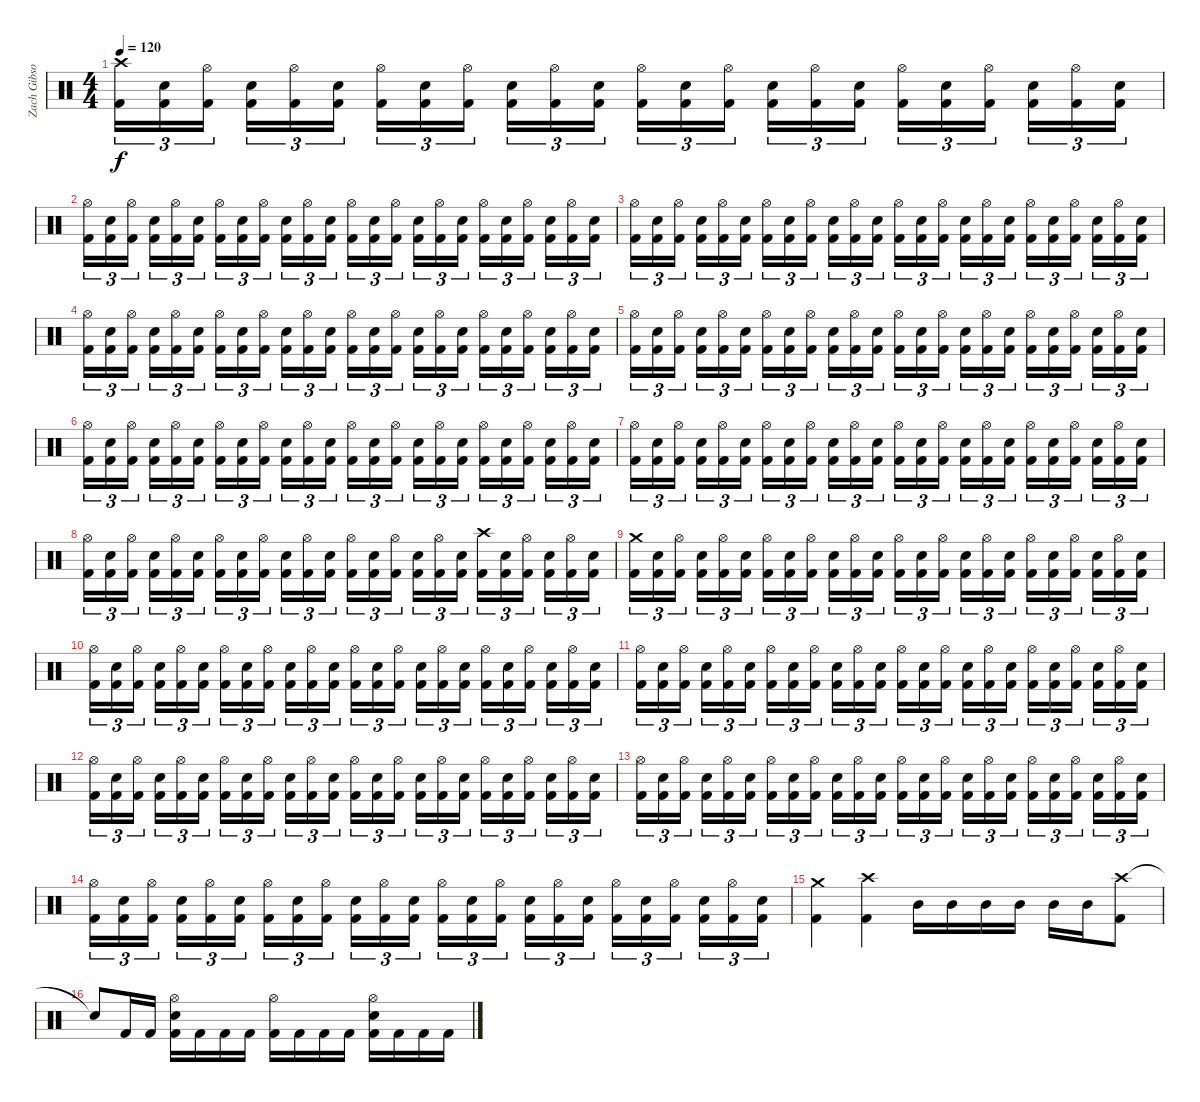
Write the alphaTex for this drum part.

\track ("Zach Gibson (Drums)" "Zach Gibso") {instrument percussion}
\staff {score}
\articulation defaults
\ts (4 4)
\tempo 120
\tempo 181
\tempo 120
\clef neutral
\ks c
("Crash high (hit)" "Kick (hit) 2").16{tu (3 2) dy f} ("Snare (hit) 2" "Kick (hit) 2").16{tu (3 2)} ("Hi-Hat (open)" "Kick (hit) 2").16{tu (3 2)} ("Snare (hit) 2" "Kick (hit) 2").16{tu (3 2)} ("Hi-Hat (open)" "Kick (hit) 2").16{tu (3 2)} ("Snare (hit) 2" "Kick (hit) 2").16{tu (3 2)} ("Hi-Hat (open)" "Kick (hit) 2").16{tu (3 2)} ("Snare (hit) 2" "Kick (hit) 2").16{tu (3 2)} ("Hi-Hat (open)" "Kick (hit) 2").16{tu (3 2)} ("Snare (hit) 2" "Kick (hit) 2").16{tu (3 2)} ("Hi-Hat (open)" "Kick (hit) 2").16{tu (3 2)} ("Snare (hit) 2" "Kick (hit) 2").16{tu (3 2)} ("Hi-Hat (open)" "Kick (hit) 2").16{tu (3 2)} ("Snare (hit) 2" "Kick (hit) 2").16{tu (3 2)} ("Hi-Hat (open)" "Kick (hit) 2").16{tu (3 2)} ("Snare (hit) 2" "Kick (hit) 2").16{tu (3 2)} ("Hi-Hat (open)" "Kick (hit) 2").16{tu (3 2)} ("Snare (hit) 2" "Kick (hit) 2").16{tu (3 2)} ("Hi-Hat (open)" "Kick (hit) 2").16{tu (3 2)} ("Snare (hit) 2" "Kick (hit) 2").16{tu (3 2)} ("Hi-Hat (open)" "Kick (hit) 2").16{tu (3 2)} ("Snare (hit) 2" "Kick (hit) 2").16{tu (3 2)} ("Hi-Hat (open)" "Kick (hit) 2").16{tu (3 2)} ("Snare (hit) 2" "Kick (hit) 2").16{tu (3 2)} |
("Hi-Hat (open)" "Kick (hit) 2").16{tu (3 2)} ("Snare (hit) 2" "Kick (hit) 2").16{tu (3 2)} ("Hi-Hat (open)" "Kick (hit) 2").16{tu (3 2)} ("Snare (hit) 2" "Kick (hit) 2").16{tu (3 2)} ("Hi-Hat (open)" "Kick (hit) 2").16{tu (3 2)} ("Snare (hit) 2" "Kick (hit) 2").16{tu (3 2)} ("Hi-Hat (open)" "Kick (hit) 2").16{tu (3 2)} ("Snare (hit) 2" "Kick (hit) 2").16{tu (3 2)} ("Hi-Hat (open)" "Kick (hit) 2").16{tu (3 2)} ("Snare (hit) 2" "Kick (hit) 2").16{tu (3 2)} ("Hi-Hat (open)" "Kick (hit) 2").16{tu (3 2)} ("Snare (hit) 2" "Kick (hit) 2").16{tu (3 2)} ("Hi-Hat (open)" "Kick (hit) 2").16{tu (3 2)} ("Snare (hit) 2" "Kick (hit) 2").16{tu (3 2)} ("Hi-Hat (open)" "Kick (hit) 2").16{tu (3 2)} ("Snare (hit) 2" "Kick (hit) 2").16{tu (3 2)} ("Hi-Hat (open)" "Kick (hit) 2").16{tu (3 2)} ("Snare (hit) 2" "Kick (hit) 2").16{tu (3 2)} ("Hi-Hat (open)" "Kick (hit) 2").16{tu (3 2)} ("Snare (hit) 2" "Kick (hit) 2").16{tu (3 2)} ("Hi-Hat (open)" "Kick (hit) 2").16{tu (3 2)} ("Snare (hit) 2" "Kick (hit) 2").16{tu (3 2)} ("Hi-Hat (open)" "Kick (hit) 2").16{tu (3 2)} ("Snare (hit) 2" "Kick (hit) 2").16{tu (3 2)} |
("Hi-Hat (open)" "Kick (hit) 2").16{tu (3 2)} ("Snare (hit) 2" "Kick (hit) 2").16{tu (3 2)} ("Hi-Hat (open)" "Kick (hit) 2").16{tu (3 2)} ("Snare (hit) 2" "Kick (hit) 2").16{tu (3 2)} ("Hi-Hat (open)" "Kick (hit) 2").16{tu (3 2)} ("Snare (hit) 2" "Kick (hit) 2").16{tu (3 2)} ("Hi-Hat (open)" "Kick (hit) 2").16{tu (3 2)} ("Snare (hit) 2" "Kick (hit) 2").16{tu (3 2)} ("Hi-Hat (open)" "Kick (hit) 2").16{tu (3 2)} ("Snare (hit) 2" "Kick (hit) 2").16{tu (3 2)} ("Hi-Hat (open)" "Kick (hit) 2").16{tu (3 2)} ("Snare (hit) 2" "Kick (hit) 2").16{tu (3 2)} ("Hi-Hat (open)" "Kick (hit) 2").16{tu (3 2)} ("Snare (hit) 2" "Kick (hit) 2").16{tu (3 2)} ("Hi-Hat (open)" "Kick (hit) 2").16{tu (3 2)} ("Snare (hit) 2" "Kick (hit) 2").16{tu (3 2)} ("Hi-Hat (open)" "Kick (hit) 2").16{tu (3 2)} ("Snare (hit) 2" "Kick (hit) 2").16{tu (3 2)} ("Hi-Hat (open)" "Kick (hit) 2").16{tu (3 2)} ("Snare (hit) 2" "Kick (hit) 2").16{tu (3 2)} ("Hi-Hat (open)" "Kick (hit) 2").16{tu (3 2)} ("Snare (hit) 2" "Kick (hit) 2").16{tu (3 2)} ("Hi-Hat (open)" "Kick (hit) 2").16{tu (3 2)} ("Snare (hit) 2" "Kick (hit) 2").16{tu (3 2)} |
("Hi-Hat (open)" "Kick (hit) 2").16{tu (3 2)} ("Snare (hit) 2" "Kick (hit) 2").16{tu (3 2)} ("Hi-Hat (open)" "Kick (hit) 2").16{tu (3 2)} ("Snare (hit) 2" "Kick (hit) 2").16{tu (3 2)} ("Hi-Hat (open)" "Kick (hit) 2").16{tu (3 2)} ("Snare (hit) 2" "Kick (hit) 2").16{tu (3 2)} ("Hi-Hat (open)" "Kick (hit) 2").16{tu (3 2)} ("Snare (hit) 2" "Kick (hit) 2").16{tu (3 2)} ("Hi-Hat (open)" "Kick (hit) 2").16{tu (3 2)} ("Snare (hit) 2" "Kick (hit) 2").16{tu (3 2)} ("Hi-Hat (open)" "Kick (hit) 2").16{tu (3 2)} ("Snare (hit) 2" "Kick (hit) 2").16{tu (3 2)} ("Hi-Hat (open)" "Kick (hit) 2").16{tu (3 2)} ("Snare (hit) 2" "Kick (hit) 2").16{tu (3 2)} ("Hi-Hat (open)" "Kick (hit) 2").16{tu (3 2)} ("Snare (hit) 2" "Kick (hit) 2").16{tu (3 2)} ("Hi-Hat (open)" "Kick (hit) 2").16{tu (3 2)} ("Snare (hit) 2" "Kick (hit) 2").16{tu (3 2)} ("Hi-Hat (open)" "Kick (hit) 2").16{tu (3 2)} ("Snare (hit) 2" "Kick (hit) 2").16{tu (3 2)} ("Hi-Hat (open)" "Kick (hit) 2").16{tu (3 2)} ("Snare (hit) 2" "Kick (hit) 2").16{tu (3 2)} ("Hi-Hat (open)" "Kick (hit) 2").16{tu (3 2)} ("Snare (hit) 2" "Kick (hit) 2").16{tu (3 2)} |
("Hi-Hat (open)" "Kick (hit) 2").16{tu (3 2)} ("Snare (hit) 2" "Kick (hit) 2").16{tu (3 2)} ("Hi-Hat (open)" "Kick (hit) 2").16{tu (3 2)} ("Snare (hit) 2" "Kick (hit) 2").16{tu (3 2)} ("Hi-Hat (open)" "Kick (hit) 2").16{tu (3 2)} ("Snare (hit) 2" "Kick (hit) 2").16{tu (3 2)} ("Hi-Hat (open)" "Kick (hit) 2").16{tu (3 2)} ("Snare (hit) 2" "Kick (hit) 2").16{tu (3 2)} ("Hi-Hat (open)" "Kick (hit) 2").16{tu (3 2)} ("Snare (hit) 2" "Kick (hit) 2").16{tu (3 2)} ("Hi-Hat (open)" "Kick (hit) 2").16{tu (3 2)} ("Snare (hit) 2" "Kick (hit) 2").16{tu (3 2)} ("Hi-Hat (open)" "Kick (hit) 2").16{tu (3 2)} ("Snare (hit) 2" "Kick (hit) 2").16{tu (3 2)} ("Hi-Hat (open)" "Kick (hit) 2").16{tu (3 2)} ("Snare (hit) 2" "Kick (hit) 2").16{tu (3 2)} ("Hi-Hat (open)" "Kick (hit) 2").16{tu (3 2)} ("Snare (hit) 2" "Kick (hit) 2").16{tu (3 2)} ("Hi-Hat (open)" "Kick (hit) 2").16{tu (3 2)} ("Snare (hit) 2" "Kick (hit) 2").16{tu (3 2)} ("Hi-Hat (open)" "Kick (hit) 2").16{tu (3 2)} ("Snare (hit) 2" "Kick (hit) 2").16{tu (3 2)} ("Hi-Hat (open)" "Kick (hit) 2").16{tu (3 2)} ("Snare (hit) 2" "Kick (hit) 2").16{tu (3 2)} |
("Hi-Hat (open)" "Kick (hit) 2").16{tu (3 2)} ("Snare (hit) 2" "Kick (hit) 2").16{tu (3 2)} ("Hi-Hat (open)" "Kick (hit) 2").16{tu (3 2)} ("Snare (hit) 2" "Kick (hit) 2").16{tu (3 2)} ("Hi-Hat (open)" "Kick (hit) 2").16{tu (3 2)} ("Snare (hit) 2" "Kick (hit) 2").16{tu (3 2)} ("Hi-Hat (open)" "Kick (hit) 2").16{tu (3 2)} ("Snare (hit) 2" "Kick (hit) 2").16{tu (3 2)} ("Hi-Hat (open)" "Kick (hit) 2").16{tu (3 2)} ("Snare (hit) 2" "Kick (hit) 2").16{tu (3 2)} ("Hi-Hat (open)" "Kick (hit) 2").16{tu (3 2)} ("Snare (hit) 2" "Kick (hit) 2").16{tu (3 2)} ("Hi-Hat (open)" "Kick (hit) 2").16{tu (3 2)} ("Snare (hit) 2" "Kick (hit) 2").16{tu (3 2)} ("Hi-Hat (open)" "Kick (hit) 2").16{tu (3 2)} ("Snare (hit) 2" "Kick (hit) 2").16{tu (3 2)} ("Hi-Hat (open)" "Kick (hit) 2").16{tu (3 2)} ("Snare (hit) 2" "Kick (hit) 2").16{tu (3 2)} ("Hi-Hat (open)" "Kick (hit) 2").16{tu (3 2)} ("Snare (hit) 2" "Kick (hit) 2").16{tu (3 2)} ("Hi-Hat (open)" "Kick (hit) 2").16{tu (3 2)} ("Snare (hit) 2" "Kick (hit) 2").16{tu (3 2)} ("Hi-Hat (open)" "Kick (hit) 2").16{tu (3 2)} ("Snare (hit) 2" "Kick (hit) 2").16{tu (3 2)} |
("Hi-Hat (open)" "Kick (hit) 2").16{tu (3 2)} ("Snare (hit) 2" "Kick (hit) 2").16{tu (3 2)} ("Hi-Hat (open)" "Kick (hit) 2").16{tu (3 2)} ("Snare (hit) 2" "Kick (hit) 2").16{tu (3 2)} ("Hi-Hat (open)" "Kick (hit) 2").16{tu (3 2)} ("Snare (hit) 2" "Kick (hit) 2").16{tu (3 2)} ("Hi-Hat (open)" "Kick (hit) 2").16{tu (3 2)} ("Snare (hit) 2" "Kick (hit) 2").16{tu (3 2)} ("Hi-Hat (open)" "Kick (hit) 2").16{tu (3 2)} ("Snare (hit) 2" "Kick (hit) 2").16{tu (3 2)} ("Hi-Hat (open)" "Kick (hit) 2").16{tu (3 2)} ("Snare (hit) 2" "Kick (hit) 2").16{tu (3 2)} ("Hi-Hat (open)" "Kick (hit) 2").16{tu (3 2)} ("Snare (hit) 2" "Kick (hit) 2").16{tu (3 2)} ("Hi-Hat (open)" "Kick (hit) 2").16{tu (3 2)} ("Snare (hit) 2" "Kick (hit) 2").16{tu (3 2)} ("Hi-Hat (open)" "Kick (hit) 2").16{tu (3 2)} ("Snare (hit) 2" "Kick (hit) 2").16{tu (3 2)} ("Hi-Hat (open)" "Kick (hit) 2").16{tu (3 2)} ("Snare (hit) 2" "Kick (hit) 2").16{tu (3 2)} ("Hi-Hat (open)" "Kick (hit) 2").16{tu (3 2)} ("Snare (hit) 2" "Kick (hit) 2").16{tu (3 2)} ("Hi-Hat (open)" "Kick (hit) 2").16{tu (3 2)} ("Snare (hit) 2" "Kick (hit) 2").16{tu (3 2)} |
("Hi-Hat (open)" "Kick (hit) 2").16{tu (3 2)} ("Snare (hit) 2" "Kick (hit) 2").16{tu (3 2)} ("Hi-Hat (open)" "Kick (hit) 2").16{tu (3 2)} ("Snare (hit) 2" "Kick (hit) 2").16{tu (3 2)} ("Hi-Hat (open)" "Kick (hit) 2").16{tu (3 2)} ("Snare (hit) 2" "Kick (hit) 2").16{tu (3 2)} ("Hi-Hat (open)" "Kick (hit) 2").16{tu (3 2)} ("Snare (hit) 2" "Kick (hit) 2").16{tu (3 2)} ("Hi-Hat (open)" "Kick (hit) 2").16{tu (3 2)} ("Snare (hit) 2" "Kick (hit) 2").16{tu (3 2)} ("Hi-Hat (open)" "Kick (hit) 2").16{tu (3 2)} ("Snare (hit) 2" "Kick (hit) 2").16{tu (3 2)} ("Hi-Hat (open)" "Kick (hit) 2").16{tu (3 2)} ("Snare (hit) 2" "Kick (hit) 2").16{tu (3 2)} ("Hi-Hat (open)" "Kick (hit) 2").16{tu (3 2)} ("Snare (hit) 2" "Kick (hit) 2").16{tu (3 2)} ("Hi-Hat (open)" "Kick (hit) 2").16{tu (3 2)} ("Snare (hit) 2" "Kick (hit) 2").16{tu (3 2)} ("Crash high (hit)" "Kick (hit) 2").16{tu (3 2)} ("Snare (hit) 2" "Kick (hit) 2").16{tu (3 2)} ("Hi-Hat (open)" "Kick (hit) 2").16{tu (3 2)} ("Snare (hit) 2" "Kick (hit) 2").16{tu (3 2)} ("Hi-Hat (open)" "Kick (hit) 2").16{tu (3 2)} ("Snare (hit) 2" "Kick (hit) 2").16{tu (3 2)} |
("Crash medium (hit)" "Kick (hit) 2").16{tu (3 2)} ("Snare (hit) 2" "Kick (hit) 2").16{tu (3 2)} ("Hi-Hat (open)" "Kick (hit) 2").16{tu (3 2)} ("Snare (hit) 2" "Kick (hit) 2").16{tu (3 2)} ("Hi-Hat (open)" "Kick (hit) 2").16{tu (3 2)} ("Snare (hit) 2" "Kick (hit) 2").16{tu (3 2)} ("Hi-Hat (open)" "Kick (hit) 2").16{tu (3 2)} ("Snare (hit) 2" "Kick (hit) 2").16{tu (3 2)} ("Hi-Hat (open)" "Kick (hit) 2").16{tu (3 2)} ("Snare (hit) 2" "Kick (hit) 2").16{tu (3 2)} ("Hi-Hat (open)" "Kick (hit) 2").16{tu (3 2)} ("Snare (hit) 2" "Kick (hit) 2").16{tu (3 2)} ("Hi-Hat (open)" "Kick (hit) 2").16{tu (3 2)} ("Snare (hit) 2" "Kick (hit) 2").16{tu (3 2)} ("Hi-Hat (open)" "Kick (hit) 2").16{tu (3 2)} ("Snare (hit) 2" "Kick (hit) 2").16{tu (3 2)} ("Hi-Hat (open)" "Kick (hit) 2").16{tu (3 2)} ("Snare (hit) 2" "Kick (hit) 2").16{tu (3 2)} ("Hi-Hat (open)" "Kick (hit) 2").16{tu (3 2)} ("Snare (hit) 2" "Kick (hit) 2").16{tu (3 2)} ("Hi-Hat (open)" "Kick (hit) 2").16{tu (3 2)} ("Snare (hit) 2" "Kick (hit) 2").16{tu (3 2)} ("Hi-Hat (open)" "Kick (hit) 2").16{tu (3 2)} ("Snare (hit) 2" "Kick (hit) 2").16{tu (3 2)} |
("Hi-Hat (open)" "Kick (hit) 2").16{tu (3 2)} ("Snare (hit) 2" "Kick (hit) 2").16{tu (3 2)} ("Hi-Hat (open)" "Kick (hit) 2").16{tu (3 2)} ("Snare (hit) 2" "Kick (hit) 2").16{tu (3 2)} ("Hi-Hat (open)" "Kick (hit) 2").16{tu (3 2)} ("Snare (hit) 2" "Kick (hit) 2").16{tu (3 2)} ("Hi-Hat (open)" "Kick (hit) 2").16{tu (3 2)} ("Snare (hit) 2" "Kick (hit) 2").16{tu (3 2)} ("Hi-Hat (open)" "Kick (hit) 2").16{tu (3 2)} ("Snare (hit) 2" "Kick (hit) 2").16{tu (3 2)} ("Hi-Hat (open)" "Kick (hit) 2").16{tu (3 2)} ("Snare (hit) 2" "Kick (hit) 2").16{tu (3 2)} ("Hi-Hat (open)" "Kick (hit) 2").16{tu (3 2)} ("Snare (hit) 2" "Kick (hit) 2").16{tu (3 2)} ("Hi-Hat (open)" "Kick (hit) 2").16{tu (3 2)} ("Snare (hit) 2" "Kick (hit) 2").16{tu (3 2)} ("Hi-Hat (open)" "Kick (hit) 2").16{tu (3 2)} ("Snare (hit) 2" "Kick (hit) 2").16{tu (3 2)} ("Hi-Hat (open)" "Kick (hit) 2").16{tu (3 2)} ("Snare (hit) 2" "Kick (hit) 2").16{tu (3 2)} ("Hi-Hat (open)" "Kick (hit) 2").16{tu (3 2)} ("Snare (hit) 2" "Kick (hit) 2").16{tu (3 2)} ("Hi-Hat (open)" "Kick (hit) 2").16{tu (3 2)} ("Snare (hit) 2" "Kick (hit) 2").16{tu (3 2)} |
("Hi-Hat (open)" "Kick (hit) 2").16{tu (3 2)} ("Snare (hit) 2" "Kick (hit) 2").16{tu (3 2)} ("Hi-Hat (open)" "Kick (hit) 2").16{tu (3 2)} ("Snare (hit) 2" "Kick (hit) 2").16{tu (3 2)} ("Hi-Hat (open)" "Kick (hit) 2").16{tu (3 2)} ("Snare (hit) 2" "Kick (hit) 2").16{tu (3 2)} ("Hi-Hat (open)" "Kick (hit) 2").16{tu (3 2)} ("Snare (hit) 2" "Kick (hit) 2").16{tu (3 2)} ("Hi-Hat (open)" "Kick (hit) 2").16{tu (3 2)} ("Snare (hit) 2" "Kick (hit) 2").16{tu (3 2)} ("Hi-Hat (open)" "Kick (hit) 2").16{tu (3 2)} ("Snare (hit) 2" "Kick (hit) 2").16{tu (3 2)} ("Hi-Hat (open)" "Kick (hit) 2").16{tu (3 2)} ("Snare (hit) 2" "Kick (hit) 2").16{tu (3 2)} ("Hi-Hat (open)" "Kick (hit) 2").16{tu (3 2)} ("Snare (hit) 2" "Kick (hit) 2").16{tu (3 2)} ("Hi-Hat (open)" "Kick (hit) 2").16{tu (3 2)} ("Snare (hit) 2" "Kick (hit) 2").16{tu (3 2)} ("Hi-Hat (open)" "Kick (hit) 2").16{tu (3 2)} ("Snare (hit) 2" "Kick (hit) 2").16{tu (3 2)} ("Hi-Hat (open)" "Kick (hit) 2").16{tu (3 2)} ("Snare (hit) 2" "Kick (hit) 2").16{tu (3 2)} ("Hi-Hat (open)" "Kick (hit) 2").16{tu (3 2)} ("Snare (hit) 2" "Kick (hit) 2").16{tu (3 2)} |
("Hi-Hat (open)" "Kick (hit) 2").16{tu (3 2)} ("Snare (hit) 2" "Kick (hit) 2").16{tu (3 2)} ("Hi-Hat (open)" "Kick (hit) 2").16{tu (3 2)} ("Snare (hit) 2" "Kick (hit) 2").16{tu (3 2)} ("Hi-Hat (open)" "Kick (hit) 2").16{tu (3 2)} ("Snare (hit) 2" "Kick (hit) 2").16{tu (3 2)} ("Hi-Hat (open)" "Kick (hit) 2").16{tu (3 2)} ("Snare (hit) 2" "Kick (hit) 2").16{tu (3 2)} ("Hi-Hat (open)" "Kick (hit) 2").16{tu (3 2)} ("Snare (hit) 2" "Kick (hit) 2").16{tu (3 2)} ("Hi-Hat (open)" "Kick (hit) 2").16{tu (3 2)} ("Snare (hit) 2" "Kick (hit) 2").16{tu (3 2)} ("Hi-Hat (open)" "Kick (hit) 2").16{tu (3 2)} ("Snare (hit) 2" "Kick (hit) 2").16{tu (3 2)} ("Hi-Hat (open)" "Kick (hit) 2").16{tu (3 2)} ("Snare (hit) 2" "Kick (hit) 2").16{tu (3 2)} ("Hi-Hat (open)" "Kick (hit) 2").16{tu (3 2)} ("Snare (hit) 2" "Kick (hit) 2").16{tu (3 2)} ("Hi-Hat (open)" "Kick (hit) 2").16{tu (3 2)} ("Snare (hit) 2" "Kick (hit) 2").16{tu (3 2)} ("Hi-Hat (open)" "Kick (hit) 2").16{tu (3 2)} ("Snare (hit) 2" "Kick (hit) 2").16{tu (3 2)} ("Hi-Hat (open)" "Kick (hit) 2").16{tu (3 2)} ("Snare (hit) 2" "Kick (hit) 2").16{tu (3 2)} |
("Hi-Hat (open)" "Kick (hit) 2").16{tu (3 2)} ("Snare (hit) 2" "Kick (hit) 2").16{tu (3 2)} ("Hi-Hat (open)" "Kick (hit) 2").16{tu (3 2)} ("Snare (hit) 2" "Kick (hit) 2").16{tu (3 2)} ("Hi-Hat (open)" "Kick (hit) 2").16{tu (3 2)} ("Snare (hit) 2" "Kick (hit) 2").16{tu (3 2)} ("Hi-Hat (open)" "Kick (hit) 2").16{tu (3 2)} ("Snare (hit) 2" "Kick (hit) 2").16{tu (3 2)} ("Hi-Hat (open)" "Kick (hit) 2").16{tu (3 2)} ("Snare (hit) 2" "Kick (hit) 2").16{tu (3 2)} ("Hi-Hat (open)" "Kick (hit) 2").16{tu (3 2)} ("Snare (hit) 2" "Kick (hit) 2").16{tu (3 2)} ("Hi-Hat (open)" "Kick (hit) 2").16{tu (3 2)} ("Snare (hit) 2" "Kick (hit) 2").16{tu (3 2)} ("Hi-Hat (open)" "Kick (hit) 2").16{tu (3 2)} ("Snare (hit) 2" "Kick (hit) 2").16{tu (3 2)} ("Hi-Hat (open)" "Kick (hit) 2").16{tu (3 2)} ("Snare (hit) 2" "Kick (hit) 2").16{tu (3 2)} ("Hi-Hat (open)" "Kick (hit) 2").16{tu (3 2)} ("Snare (hit) 2" "Kick (hit) 2").16{tu (3 2)} ("Hi-Hat (open)" "Kick (hit) 2").16{tu (3 2)} ("Snare (hit) 2" "Kick (hit) 2").16{tu (3 2)} ("Hi-Hat (open)" "Kick (hit) 2").16{tu (3 2)} ("Snare (hit) 2" "Kick (hit) 2").16{tu (3 2)} |
("Hi-Hat (open)" "Kick (hit) 2").16{tu (3 2)} ("Snare (hit) 2" "Kick (hit) 2").16{tu (3 2)} ("Hi-Hat (open)" "Kick (hit) 2").16{tu (3 2)} ("Snare (hit) 2" "Kick (hit) 2").16{tu (3 2)} ("Hi-Hat (open)" "Kick (hit) 2").16{tu (3 2)} ("Snare (hit) 2" "Kick (hit) 2").16{tu (3 2)} ("Hi-Hat (open)" "Kick (hit) 2").16{tu (3 2)} ("Snare (hit) 2" "Kick (hit) 2").16{tu (3 2)} ("Hi-Hat (open)" "Kick (hit) 2").16{tu (3 2)} ("Snare (hit) 2" "Kick (hit) 2").16{tu (3 2)} ("Hi-Hat (open)" "Kick (hit) 2").16{tu (3 2)} ("Snare (hit) 2" "Kick (hit) 2").16{tu (3 2)} ("Hi-Hat (open)" "Kick (hit) 2").16{tu (3 2)} ("Snare (hit) 2" "Kick (hit) 2").16{tu (3 2)} ("Hi-Hat (open)" "Kick (hit) 2").16{tu (3 2)} ("Snare (hit) 2" "Kick (hit) 2").16{tu (3 2)} ("Hi-Hat (open)" "Kick (hit) 2").16{tu (3 2)} ("Snare (hit) 2" "Kick (hit) 2").16{tu (3 2)} ("Hi-Hat (open)" "Kick (hit) 2").16{tu (3 2)} ("Snare (hit) 2" "Kick (hit) 2").16{tu (3 2)} ("Hi-Hat (open)" "Kick (hit) 2").16{tu (3 2)} ("Snare (hit) 2" "Kick (hit) 2").16{tu (3 2)} ("Hi-Hat (open)" "Kick (hit) 2").16{tu (3 2)} ("Snare (hit) 2" "Kick (hit) 2").16{tu (3 2)} |
("Crash medium (hit)" "Kick (hit) 2").4 ("Crash high (hit)" "Kick (hit) 2").4 "Mid Tom (hit)".16 "Mid Tom (hit)".16 "Mid Tom (hit)".16 "Mid Tom (hit)".16 "Mid Tom (hit)".16 "Mid Tom (hit)".16 ("Crash high (hit)" "Kick (hit) 2").8 |
"Snare (hit)"{t}.8 "Kick (hit) 2".16 "Kick (hit) 2".16 ("Hi-Hat (open)" "Snare (hit) 2" "Kick (hit) 2").16 "Kick (hit) 2".16 "Kick (hit) 2".16 "Kick (hit) 2".16 ("Hi-Hat (open)" "Kick (hit) 2").16 "Kick (hit) 2".16 "Kick (hit) 2".16 "Kick (hit) 2".16 ("Hi-Hat (open)" "Snare (hit) 2" "Kick (hit) 2").16 "Kick (hit) 2".16 "Kick (hit) 2".16 "Kick (hit) 2".16
